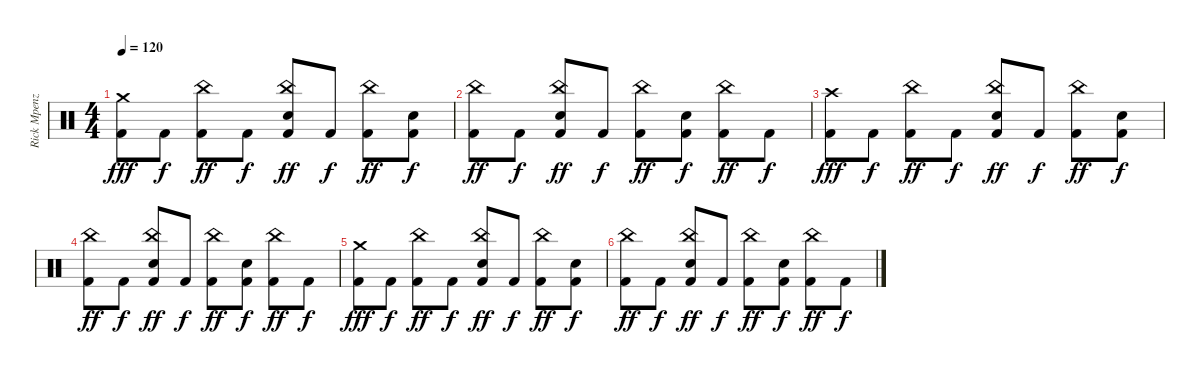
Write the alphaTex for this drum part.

\track ("Rick Mpenza" "Rick Mpenz") {instrument percussion}
\staff {score}
\articulation defaults
\ts (4 4)
\tempo 120
\clef neutral
\ks c
("Crash medium (hit)" "Kick (hit) 2").8{dy fff} "Kick (hit) 2".8{dy f} ("China (hit)" "Kick (hit) 2").8{dy ff} "Kick (hit) 2".8{dy f} ("China (hit)" "Snare (hit) 2" "Kick (hit) 2").8{dy ff} "Kick (hit) 2".8{dy f} ("China (hit)" "Kick (hit) 2").8{dy ff} ("Snare (hit) 2" "Kick (hit) 2").8{dy f} |
("China (hit)" "Kick (hit) 2").8{dy ff} "Kick (hit) 2".8{dy f} ("China (hit)" "Snare (hit) 2" "Kick (hit) 2").8{dy ff} "Kick (hit) 2".8{dy f} ("China (hit)" "Kick (hit) 2").8{dy ff} ("Snare (hit) 2" "Kick (hit) 2").8{dy f} ("China (hit)" "Kick (hit) 2").8{dy ff} "Kick (hit) 2".8{dy f} |
("Crash high (hit)" "Kick (hit) 2").8{dy fff volume 8} "Kick (hit) 2".8{dy f} ("China (hit)" "Kick (hit) 2").8{dy ff} "Kick (hit) 2".8{dy f} ("China (hit)" "Snare (hit) 2" "Kick (hit) 2").8{dy ff} "Kick (hit) 2".8{dy f} ("China (hit)" "Kick (hit) 2").8{dy ff} ("Snare (hit) 2" "Kick (hit) 2").8{dy f} |
("China (hit)" "Kick (hit) 2").8{dy ff} "Kick (hit) 2".8{dy f} ("China (hit)" "Snare (hit) 2" "Kick (hit) 2").8{dy ff} "Kick (hit) 2".8{dy f} ("China (hit)" "Kick (hit) 2").8{dy ff} ("Snare (hit) 2" "Kick (hit) 2").8{dy f} ("China (hit)" "Kick (hit) 2").8{dy ff} "Kick (hit) 2".8{dy f} |
("Crash medium (hit)" "Kick (hit) 2").8{dy fff volume 0} "Kick (hit) 2".8{dy f} ("China (hit)" "Kick (hit) 2").8{dy ff} "Kick (hit) 2".8{dy f} ("China (hit)" "Snare (hit) 2" "Kick (hit) 2").8{dy ff} "Kick (hit) 2".8{dy f} ("China (hit)" "Kick (hit) 2").8{dy ff} ("Snare (hit) 2" "Kick (hit) 2").8{dy f} |
("China (hit)" "Kick (hit) 2").8{dy ff} "Kick (hit) 2".8{dy f} ("China (hit)" "Snare (hit) 2" "Kick (hit) 2").8{dy ff} "Kick (hit) 2".8{dy f} ("China (hit)" "Kick (hit) 2").8{dy ff} ("Snare (hit) 2" "Kick (hit) 2").8{dy f} ("China (hit)" "Kick (hit) 2").8{dy ff} "Kick (hit) 2".8{dy f}
